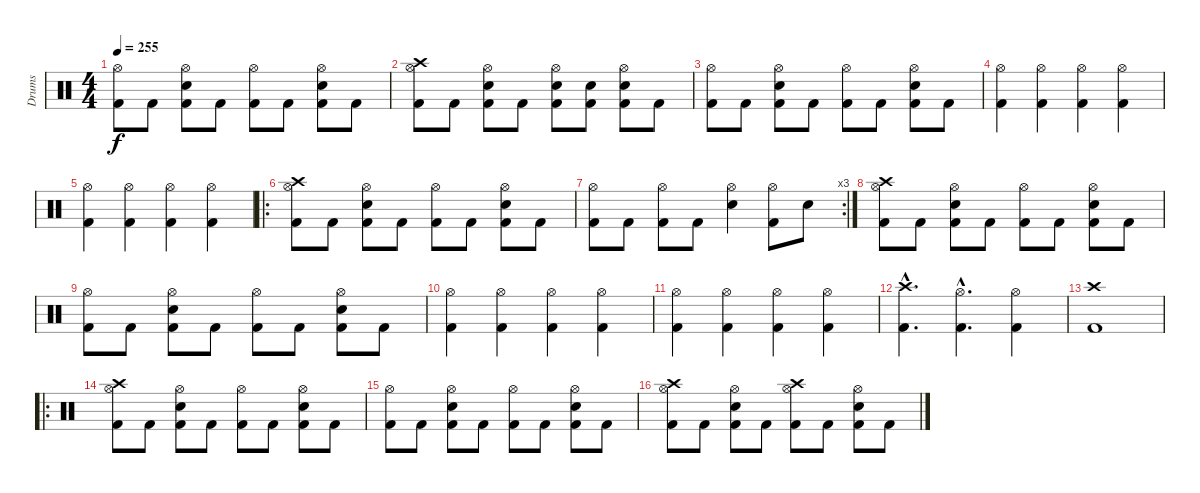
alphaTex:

\track ("Drums" "Drums") {instrument percussion}
\staff {score}
\articulation defaults
\ts (4 4)
\tempo 255
\clef neutral
\ks c
("Hi-Hat (open)" "Kick (hit) 2").8{dy f} "Kick (hit) 2".8 ("Hi-Hat (open)" "Electric Snare (hit)" "Kick (hit) 2").8 "Kick (hit) 2".8 ("Hi-Hat (open)" "Kick (hit) 2").8 "Kick (hit) 2".8 ("Hi-Hat (open)" "Electric Snare (hit)" "Kick (hit) 2").8 "Kick (hit) 2".8 |
("Crash high (hit)" "Hi-Hat (open)" "Kick (hit) 2").8 "Kick (hit) 2".8 ("Hi-Hat (open)" "Electric Snare (hit)" "Kick (hit) 2").8 "Kick (hit) 2".8 ("Hi-Hat (open)" "Electric Snare (hit)" "Kick (hit) 2").8 ("Electric Snare (hit)" "Kick (hit) 2").8 ("Hi-Hat (open)" "Electric Snare (hit)" "Kick (hit) 2").8 "Kick (hit) 2".8 |
("Hi-Hat (open)" "Kick (hit) 2").8 "Kick (hit) 2".8 ("Hi-Hat (open)" "Electric Snare (hit)" "Kick (hit) 2").8 "Kick (hit) 2".8 ("Hi-Hat (open)" "Kick (hit) 2").8 "Kick (hit) 2".8 ("Hi-Hat (open)" "Electric Snare (hit)" "Kick (hit) 2").8 "Kick (hit) 2".8 |
("Hi-Hat (open)" "Kick (hit) 2").4 ("Hi-Hat (open)" "Kick (hit) 2").4 ("Hi-Hat (open)" "Kick (hit) 2").4 ("Hi-Hat (open)" "Kick (hit) 2").4 |
("Hi-Hat (open)" "Kick (hit) 2").4 ("Hi-Hat (open)" "Kick (hit) 2").4 ("Hi-Hat (open)" "Kick (hit) 2").4 ("Hi-Hat (open)" "Kick (hit) 2").4 |
\ro
("Crash high (hit)" "Hi-Hat (open)" "Kick (hit) 2").8 "Kick (hit) 2".8 ("Hi-Hat (open)" "Electric Snare (hit)" "Kick (hit) 2").8 "Kick (hit) 2".8 ("Hi-Hat (open)" "Kick (hit) 2").8 "Kick (hit) 2".8 ("Hi-Hat (open)" "Electric Snare (hit)" "Kick (hit) 2").8 "Kick (hit) 2".8 |
\rc 3
("Hi-Hat (open)" "Kick (hit) 2").8 "Kick (hit) 2".8 ("Hi-Hat (open)" "Kick (hit) 2").8 "Kick (hit) 2".8 ("Hi-Hat (open)" "Electric Snare (hit)").4 ("Hi-Hat (open)" "Kick (hit) 2").8 "Electric Snare (hit)".8 |
("Crash high (hit)" "Hi-Hat (open)" "Kick (hit) 2").8 "Kick (hit) 2".8 ("Hi-Hat (open)" "Electric Snare (hit)" "Kick (hit) 2").8 "Kick (hit) 2".8 ("Hi-Hat (open)" "Kick (hit) 2").8 "Kick (hit) 2".8 ("Hi-Hat (open)" "Electric Snare (hit)" "Kick (hit) 2").8 "Kick (hit) 2".8 |
("Hi-Hat (open)" "Kick (hit) 2").8 "Kick (hit) 2".8 ("Hi-Hat (open)" "Electric Snare (hit)" "Kick (hit) 2").8 "Kick (hit) 2".8 ("Hi-Hat (open)" "Kick (hit) 2").8 "Kick (hit) 2".8 ("Hi-Hat (open)" "Electric Snare (hit)" "Kick (hit) 2").8 "Kick (hit) 2".8 |
("Hi-Hat (open)" "Kick (hit) 2").4 ("Hi-Hat (open)" "Kick (hit) 2").4 ("Hi-Hat (open)" "Kick (hit) 2").4 ("Hi-Hat (open)" "Kick (hit) 2").4 |
("Hi-Hat (open)" "Kick (hit) 2").4 ("Hi-Hat (open)" "Kick (hit) 2").4 ("Hi-Hat (open)" "Kick (hit) 2").4 ("Hi-Hat (open)" "Kick (hit) 2").4 |
("Crash high (hit)"{hac} "Kick (hit) 2"{hac}).4{d} ("Hi-Hat (open)"{hac} "Kick (hit) 2"{hac}).4{d} ("Hi-Hat (open)" "Kick (hit) 2").4 |
("Crash high (hit)" "Kick (hit) 2").1 |
\ro
("Crash high (hit)" "Hi-Hat (open)" "Kick (hit) 2").8 "Kick (hit) 2".8 ("Hi-Hat (open)" "Electric Snare (hit)" "Kick (hit) 2").8 "Kick (hit) 2".8 ("Hi-Hat (open)" "Kick (hit) 2").8 "Kick (hit) 2".8 ("Hi-Hat (open)" "Electric Snare (hit)" "Kick (hit) 2").8 "Kick (hit) 2".8 |
("Hi-Hat (open)" "Kick (hit) 2").8 "Kick (hit) 2".8 ("Hi-Hat (open)" "Electric Snare (hit)" "Kick (hit) 2").8 "Kick (hit) 2".8 ("Hi-Hat (open)" "Kick (hit) 2").8 "Kick (hit) 2".8 ("Hi-Hat (open)" "Electric Snare (hit)" "Kick (hit) 2").8 "Kick (hit) 2".8 |
("Crash high (hit)" "Hi-Hat (open)" "Kick (hit) 2").8 "Kick (hit) 2".8 ("Hi-Hat (open)" "Electric Snare (hit)" "Kick (hit) 2").8 "Kick (hit) 2".8 ("Crash high (hit)" "Hi-Hat (open)" "Kick (hit) 2").8 "Kick (hit) 2".8 ("Hi-Hat (open)" "Electric Snare (hit)" "Kick (hit) 2").8 "Kick (hit) 2".8
